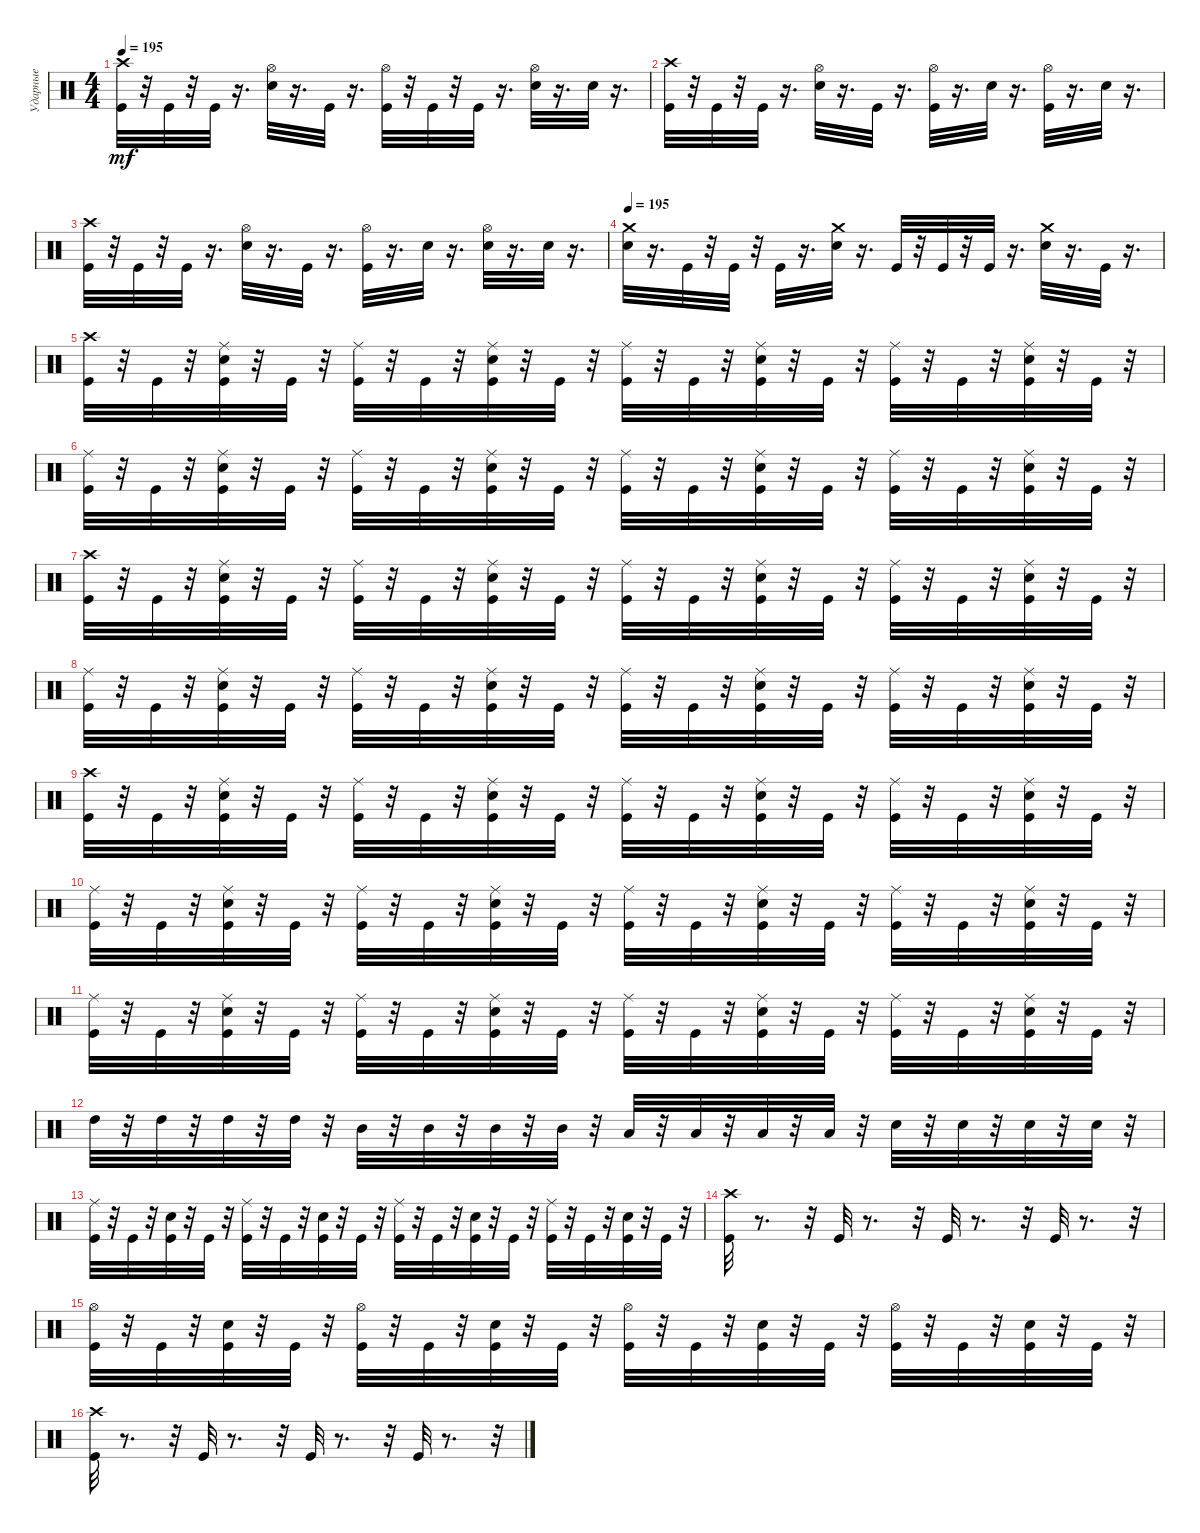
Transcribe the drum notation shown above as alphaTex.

\track ("Ударные" "Ударные") {instrument percussion}
\staff {score}
\articulation defaults
\ts (4 4)
\tempo 195
\clef neutral
\ks c
("Crash high (hit)" "Kick (hit)").32{dy mf} r.32 "Kick (hit)".32 r.32 "Kick (hit)".32 r.16{d} ("Electric Snare (hit)" "Hi-Hat (open)").32 r.16{d} "Kick (hit)".32 r.16{d} ("Kick (hit)" "Hi-Hat (open)").32 r.32 "Kick (hit)".32 r.32 "Kick (hit)".32 r.16{d} ("Electric Snare (hit)" "Hi-Hat (open)").32 r.16{d} "Electric Snare (hit)".32 r.16{d} |
("Crash high (hit)" "Kick (hit)").32 r.32 "Kick (hit)".32 r.32 "Kick (hit)".32 r.16{d} ("Electric Snare (hit)" "Hi-Hat (open)").32 r.16{d} "Kick (hit)".32 r.16{d} ("Kick (hit)" "Hi-Hat (open)").32 r.16{d} "Electric Snare (hit)".32 r.16{d} ("Kick (hit)" "Hi-Hat (open)").32 r.16{d} "Electric Snare (hit)".32 r.16{d} |
("Crash high (hit)" "Kick (hit)").32 r.32 "Kick (hit)".32 r.32 "Kick (hit)".32 r.16{d} ("Electric Snare (hit)" "Hi-Hat (open)").32 r.16{d} "Kick (hit)".32 r.16{d} ("Kick (hit)" "Hi-Hat (open)").32 r.16{d} "Electric Snare (hit)".32 r.16{d} ("Electric Snare (hit)" "Hi-Hat (open)").32 r.16{d} "Electric Snare (hit)".32 r.16{d} |
\tempo 195
("Crash medium (hit)" "Electric Snare (hit)").32 r.16{d} "Kick (hit)".32 r.32 "Kick (hit)".32 r.32 "Kick (hit)".32 r.16{d} ("Crash medium (hit)" "Electric Snare (hit)").32 r.16{d} "Kick (hit)".32 r.32 "Kick (hit)".32 r.32 "Kick (hit)".32 r.16{d} ("Crash medium (hit)" "Electric Snare (hit)").32 r.16{d} "Kick (hit)".32 r.16{d} |
("Crash high (hit)" "Kick (hit)").32 r.32 "Kick (hit)".32 r.32 ("Electric Snare (hit)" "Kick (hit)" "Ride (middle)").32 r.32 "Kick (hit)".32 r.32 ("Ride (middle)" "Kick (hit)").32 r.32 "Kick (hit)".32 r.32 ("Ride (middle)" "Electric Snare (hit)" "Kick (hit)").32 r.32 "Kick (hit)".32 r.32 ("Ride (middle)" "Kick (hit)").32 r.32 "Kick (hit)".32 r.32 ("Ride (middle)" "Kick (hit)" "Electric Snare (hit)").32 r.32 "Kick (hit)".32 r.32 ("Ride (middle)" "Kick (hit)").32 r.32 "Kick (hit)".32 r.32 ("Ride (middle)" "Electric Snare (hit)" "Kick (hit)").32 r.32 "Kick (hit)".32 r.32 |
("Ride (middle)" "Kick (hit)").32 r.32 "Kick (hit)".32 r.32 ("Electric Snare (hit)" "Kick (hit)" "Ride (middle)").32 r.32 "Kick (hit)".32 r.32 ("Ride (middle)" "Kick (hit)").32 r.32 "Kick (hit)".32 r.32 ("Ride (middle)" "Electric Snare (hit)" "Kick (hit)").32 r.32 "Kick (hit)".32 r.32 ("Ride (middle)" "Kick (hit)").32 r.32 "Kick (hit)".32 r.32 ("Ride (middle)" "Kick (hit)" "Electric Snare (hit)").32 r.32 "Kick (hit)".32 r.32 ("Ride (middle)" "Kick (hit)").32 r.32 "Kick (hit)".32 r.32 ("Ride (middle)" "Electric Snare (hit)" "Kick (hit)").32 r.32 "Kick (hit)".32 r.32 |
("Crash high (hit)" "Kick (hit)").32 r.32 "Kick (hit)".32 r.32 ("Electric Snare (hit)" "Kick (hit)" "Ride (middle)").32 r.32 "Kick (hit)".32 r.32 ("Ride (middle)" "Kick (hit)").32 r.32 "Kick (hit)".32 r.32 ("Ride (middle)" "Electric Snare (hit)" "Kick (hit)").32 r.32 "Kick (hit)".32 r.32 ("Ride (middle)" "Kick (hit)").32 r.32 "Kick (hit)".32 r.32 ("Ride (middle)" "Kick (hit)" "Electric Snare (hit)").32 r.32 "Kick (hit)".32 r.32 ("Ride (middle)" "Kick (hit)").32 r.32 "Kick (hit)".32 r.32 ("Ride (middle)" "Electric Snare (hit)" "Kick (hit)").32 r.32 "Kick (hit)".32 r.32 |
("Ride (middle)" "Kick (hit)").32 r.32 "Kick (hit)".32 r.32 ("Electric Snare (hit)" "Kick (hit)" "Ride (middle)").32 r.32 "Kick (hit)".32 r.32 ("Ride (middle)" "Kick (hit)").32 r.32 "Kick (hit)".32 r.32 ("Ride (middle)" "Electric Snare (hit)" "Kick (hit)").32 r.32 "Kick (hit)".32 r.32 ("Ride (middle)" "Kick (hit)").32 r.32 "Kick (hit)".32 r.32 ("Ride (middle)" "Kick (hit)" "Electric Snare (hit)").32 r.32 "Kick (hit)".32 r.32 ("Ride (middle)" "Kick (hit)").32 r.32 "Kick (hit)".32 r.32 ("Ride (middle)" "Electric Snare (hit)" "Kick (hit)").32 r.32 "Kick (hit)".32 r.32 |
("Crash high (hit)" "Kick (hit)").32 r.32 "Kick (hit)".32 r.32 ("Electric Snare (hit)" "Kick (hit)" "Ride (middle)").32 r.32 "Kick (hit)".32 r.32 ("Ride (middle)" "Kick (hit)").32 r.32 "Kick (hit)".32 r.32 ("Ride (middle)" "Electric Snare (hit)" "Kick (hit)").32 r.32 "Kick (hit)".32 r.32 ("Ride (middle)" "Kick (hit)").32 r.32 "Kick (hit)".32 r.32 ("Ride (middle)" "Kick (hit)" "Electric Snare (hit)").32 r.32 "Kick (hit)".32 r.32 ("Ride (middle)" "Kick (hit)").32 r.32 "Kick (hit)".32 r.32 ("Ride (middle)" "Electric Snare (hit)" "Kick (hit)").32 r.32 "Kick (hit)".32 r.32 |
("Ride (middle)" "Kick (hit)").32 r.32 "Kick (hit)".32 r.32 ("Electric Snare (hit)" "Kick (hit)" "Ride (middle)").32 r.32 "Kick (hit)".32 r.32 ("Ride (middle)" "Kick (hit)").32 r.32 "Kick (hit)".32 r.32 ("Ride (middle)" "Electric Snare (hit)" "Kick (hit)").32 r.32 "Kick (hit)".32 r.32 ("Ride (middle)" "Kick (hit)").32 r.32 "Kick (hit)".32 r.32 ("Ride (middle)" "Kick (hit)" "Electric Snare (hit)").32 r.32 "Kick (hit)".32 r.32 ("Ride (middle)" "Kick (hit)").32 r.32 "Kick (hit)".32 r.32 ("Ride (middle)" "Electric Snare (hit)" "Kick (hit)").32 r.32 "Kick (hit)".32 r.32 |
("Ride (middle)" "Kick (hit)").32 r.32 "Kick (hit)".32 r.32 ("Electric Snare (hit)" "Kick (hit)" "Ride (middle)").32 r.32 "Kick (hit)".32 r.32 ("Ride (middle)" "Kick (hit)").32 r.32 "Kick (hit)".32 r.32 ("Ride (middle)" "Electric Snare (hit)" "Kick (hit)").32 r.32 "Kick (hit)".32 r.32 ("Ride (middle)" "Kick (hit)").32 r.32 "Kick (hit)".32 r.32 ("Ride (middle)" "Kick (hit)" "Electric Snare (hit)").32 r.32 "Kick (hit)".32 r.32 ("Ride (middle)" "Kick (hit)").32 r.32 "Kick (hit)".32 r.32 ("Ride (middle)" "Electric Snare (hit)" "Kick (hit)").32 r.32 "Kick (hit)".32 r.32 |
"High Tom (hit)".32 r.32 "High Tom (hit)".32 r.32 "High Tom (hit)".32 r.32 "High Tom (hit)".32 r.32 "Mid Tom (hit)".32 r.32 "Mid Tom (hit)".32 r.32 "Mid Tom (hit)".32 r.32 "Mid Tom (hit)".32 r.32 "Low Tom (hit)".32 r.32 "Low Tom (hit)".32 r.32 "Low Tom (hit)".32 r.32 "Low Tom (hit)".32 r.32 "Electric Snare (hit)".32 r.32 "Electric Snare (hit)".32 r.32 "Electric Snare (hit)".32 r.32 "Electric Snare (hit)".32 r.32 |
("Kick (hit)" "Ride (middle)").32 r.32 "Kick (hit)".32 r.32 ("Kick (hit)" "Electric Snare (hit)").32 r.32 "Kick (hit)".32 r.32 ("Ride (middle)" "Kick (hit)").32 r.32 "Kick (hit)".32 r.32 ("Electric Snare (hit)" "Kick (hit)").32 r.32 "Kick (hit)".32 r.32 ("Kick (hit)" "Ride (middle)").32 r.32 "Kick (hit)".32 r.32 ("Electric Snare (hit)" "Kick (hit)").32 r.32 "Kick (hit)".32 r.32 ("Kick (hit)" "Ride (middle)").32 r.32 "Kick (hit)".32 r.32 ("Kick (hit)" "Electric Snare (hit)").32 r.32 "Kick (hit)".32 r.32 |
("Crash high (hit)" "Kick (hit)").32 r.8{d} r.32 "Kick (hit)".32 r.8{d} r.32 "Kick (hit)".32 r.8{d} r.32 "Kick (hit)".32 r.8{d} r.32 |
("Hi-Hat (open)" "Kick (hit)").32 r.32 "Kick (hit)".32 r.32 ("Electric Snare (hit)" "Kick (hit)").32 r.32 "Kick (hit)".32 r.32 ("Hi-Hat (open)" "Kick (hit)").32 r.32 "Kick (hit)".32 r.32 ("Electric Snare (hit)" "Kick (hit)").32 r.32 "Kick (hit)".32 r.32 ("Hi-Hat (open)" "Kick (hit)").32 r.32 "Kick (hit)".32 r.32 ("Electric Snare (hit)" "Kick (hit)").32 r.32 "Kick (hit)".32 r.32 ("Hi-Hat (open)" "Kick (hit)").32 r.32 "Kick (hit)".32 r.32 ("Electric Snare (hit)" "Kick (hit)").32 r.32 "Kick (hit)".32 r.32 |
("Crash high (hit)" "Kick (hit)").32 r.8{d} r.32 "Kick (hit)".32 r.8{d} r.32 "Kick (hit)".32 r.8{d} r.32 "Kick (hit)".32 r.8{d} r.32
